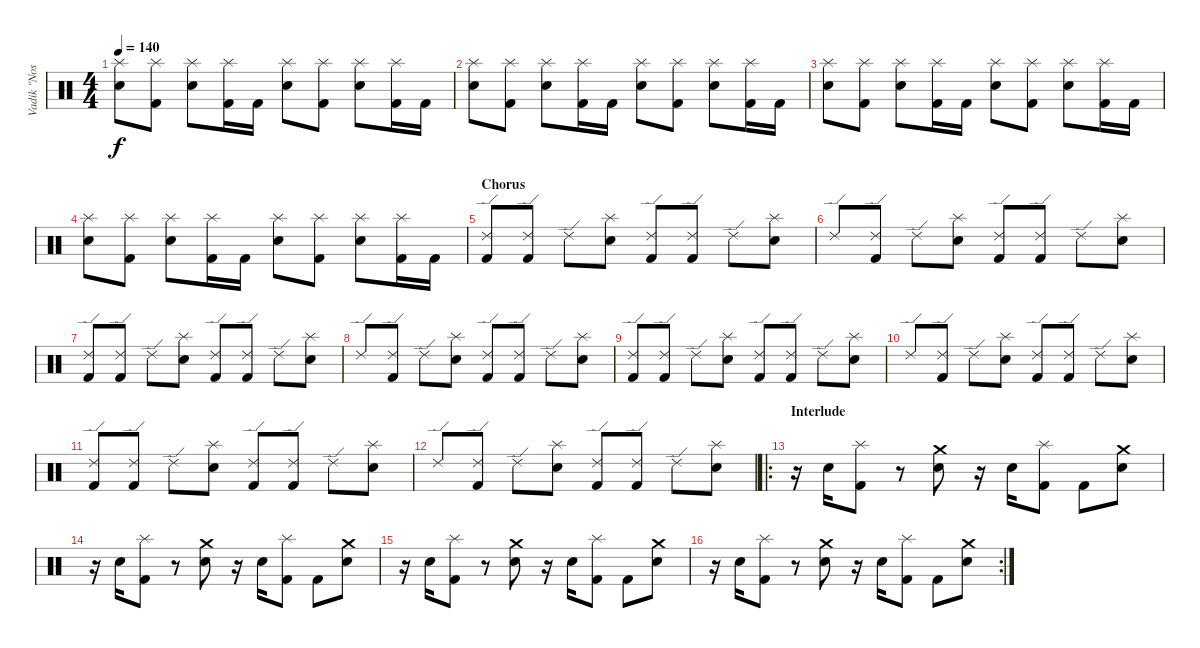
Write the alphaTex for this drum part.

\track ("Vadik \"Nos\"" "Vadik \"Nos") {instrument percussion}
\staff {score}
\articulation defaults
\ts (4 4)
\tempo 140
\clef neutral
\ks c
("Snare (hit) 2" "Splash (hit)").8{dy f} ("Kick (hit) 2" "Splash (hit)").8 ("Snare (hit) 2" "Splash (hit)").8 ("Kick (hit) 2" "Splash (hit)").16 "Kick (hit) 2".16 ("Snare (hit) 2" "Splash (hit)").8 ("Kick (hit) 2" "Splash (hit)").8 ("Snare (hit) 2" "Splash (hit)").8 ("Kick (hit) 2" "Splash (hit)").16 "Kick (hit) 2".16 |
("Snare (hit) 2" "Splash (hit)").8 ("Kick (hit) 2" "Splash (hit)").8 ("Snare (hit) 2" "Splash (hit)").8 ("Kick (hit) 2" "Splash (hit)").16 "Kick (hit) 2".16 ("Snare (hit) 2" "Splash (hit)").8 ("Kick (hit) 2" "Splash (hit)").8 ("Snare (hit) 2" "Splash (hit)").8 ("Kick (hit) 2" "Splash (hit)").16 "Kick (hit) 2".16 |
("Snare (hit) 2" "Splash (hit)").8 ("Kick (hit) 2" "Splash (hit)").8 ("Snare (hit) 2" "Splash (hit)").8 ("Kick (hit) 2" "Splash (hit)").16 "Kick (hit) 2".16 ("Snare (hit) 2" "Splash (hit)").8 ("Kick (hit) 2" "Splash (hit)").8 ("Snare (hit) 2" "Splash (hit)").8 ("Kick (hit) 2" "Splash (hit)").16 "Kick (hit) 2".16 |
("Snare (hit) 2" "Splash (hit)").8 ("Kick (hit) 2" "Splash (hit)").8 ("Snare (hit) 2" "Splash (hit)").8 ("Kick (hit) 2" "Splash (hit)").16 "Kick (hit) 2".16 ("Snare (hit) 2" "Splash (hit)").8 ("Kick (hit) 2" "Splash (hit)").8 ("Snare (hit) 2" "Splash (hit)").8 ("Kick (hit) 2" "Splash (hit)").16 "Kick (hit) 2".16 |
\section ("" "Chorus")
("Kick (hit) 2" "Ride (edge) 2").8 ("Kick (hit) 2" "Ride (edge) 2").8 "Ride (edge) 2".8 ("Snare (hit) 2" "Splash (hit)").8 ("Kick (hit) 2" "Ride (edge) 2").8 ("Kick (hit) 2" "Ride (edge) 2").8 "Ride (edge) 2".8 ("Snare (hit) 2" "Splash (hit)").8 |
"Ride (edge) 2".8 ("Kick (hit) 2" "Ride (edge) 2").8 "Ride (edge) 2".8 ("Snare (hit) 2" "Splash (hit)").8 ("Kick (hit) 2" "Ride (edge) 2").8 ("Kick (hit) 2" "Ride (edge) 2").8 "Ride (edge) 2".8 ("Snare (hit) 2" "Splash (hit)").8 |
("Kick (hit) 2" "Ride (edge) 2").8 ("Kick (hit) 2" "Ride (edge) 2").8 "Ride (edge) 2".8 ("Snare (hit) 2" "Splash (hit)").8 ("Kick (hit) 2" "Ride (edge) 2").8 ("Kick (hit) 2" "Ride (edge) 2").8 "Ride (edge) 2".8 ("Snare (hit) 2" "Splash (hit)").8 |
"Ride (edge) 2".8 ("Kick (hit) 2" "Ride (edge) 2").8 "Ride (edge) 2".8 ("Snare (hit) 2" "Splash (hit)").8 ("Kick (hit) 2" "Ride (edge) 2").8 ("Kick (hit) 2" "Ride (edge) 2").8 "Ride (edge) 2".8 ("Snare (hit) 2" "Splash (hit)").8 |
("Kick (hit) 2" "Ride (edge) 2").8 ("Kick (hit) 2" "Ride (edge) 2").8 "Ride (edge) 2".8 ("Snare (hit) 2" "Splash (hit)").8 ("Kick (hit) 2" "Ride (edge) 2").8 ("Kick (hit) 2" "Ride (edge) 2").8 "Ride (edge) 2".8 ("Snare (hit) 2" "Splash (hit)").8 |
"Ride (edge) 2".8 ("Kick (hit) 2" "Ride (edge) 2").8 "Ride (edge) 2".8 ("Snare (hit) 2" "Splash (hit)").8 ("Kick (hit) 2" "Ride (edge) 2").8 ("Kick (hit) 2" "Ride (edge) 2").8 "Ride (edge) 2".8 ("Snare (hit) 2" "Splash (hit)").8 |
("Kick (hit) 2" "Ride (edge) 2").8 ("Kick (hit) 2" "Ride (edge) 2").8 "Ride (edge) 2".8 ("Snare (hit) 2" "Splash (hit)").8 ("Kick (hit) 2" "Ride (edge) 2").8 ("Kick (hit) 2" "Ride (edge) 2").8 "Ride (edge) 2".8 ("Snare (hit) 2" "Splash (hit)").8 |
"Ride (edge) 2".8 ("Kick (hit) 2" "Ride (edge) 2").8 "Ride (edge) 2".8 ("Snare (hit) 2" "Splash (hit)").8 ("Kick (hit) 2" "Ride (edge) 2").8 ("Kick (hit) 2" "Ride (edge) 2").8 "Ride (edge) 2".8 ("Snare (hit) 2" "Splash (hit)").8 |
\ro
\section ("" "Interlude")
r.16 "Snare (hit) 2".16 ("Kick (hit) 2" "Splash (hit)").8 r.8 ("Snare (hit) 2" "Crash medium (hit)").8 r.16 "Snare (hit) 2".16 ("Kick (hit) 2" "Splash (hit)").8 "Kick (hit) 2".8 ("Snare (hit) 2" "Crash medium (hit)").8 |
r.16 "Snare (hit) 2".16 ("Kick (hit) 2" "Splash (hit)").8 r.8 ("Snare (hit) 2" "Crash medium (hit)").8 r.16 "Snare (hit) 2".16 ("Kick (hit) 2" "Splash (hit)").8 "Kick (hit) 2".8 ("Snare (hit) 2" "Crash medium (hit)").8 |
r.16 "Snare (hit) 2".16 ("Kick (hit) 2" "Splash (hit)").8 r.8 ("Snare (hit) 2" "Crash medium (hit)").8 r.16 "Snare (hit) 2".16 ("Kick (hit) 2" "Splash (hit)").8 "Kick (hit) 2".8 ("Snare (hit) 2" "Crash medium (hit)").8 |
\rc 2
r.16 "Snare (hit) 2".16 ("Kick (hit) 2" "Splash (hit)").8 r.8 ("Snare (hit) 2" "Crash medium (hit)").8 r.16 "Snare (hit) 2".16 ("Kick (hit) 2" "Splash (hit)").8 "Kick (hit) 2".8 ("Snare (hit) 2" "Crash medium (hit)").8
